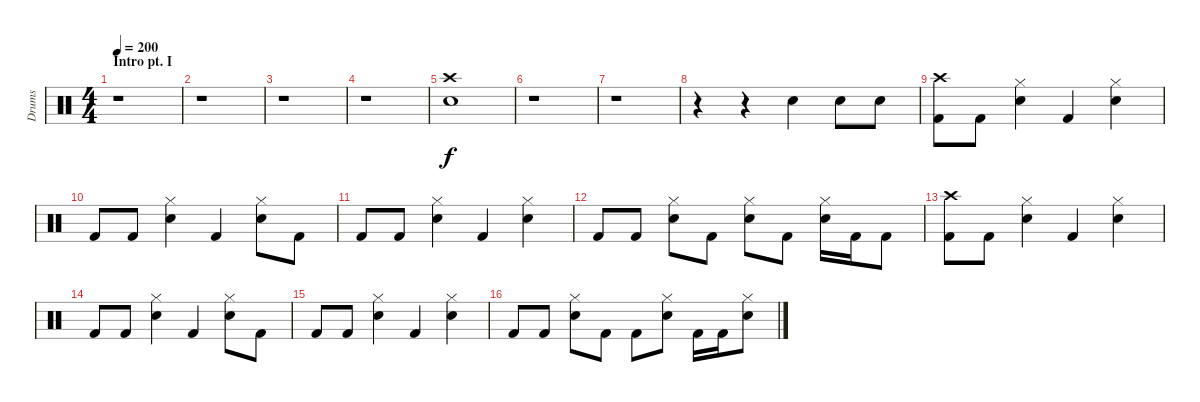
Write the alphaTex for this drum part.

\track ("Drums" "Drums") {instrument percussion}
\staff {score}
\articulation defaults
\ts (4 4)
\section ("" "Intro pt. I")
\tempo 200
\clef neutral
\ks c
r.1{dy f} |
r.1 |
r.1 |
r.1 |
("Crash high (hit)" "Snare (hit) 2").1 |
r.1 |
r.1 |
r.4 r.4 "Snare (hit) 2".4 "Snare (hit) 2".8 "Snare (hit) 2".8 |
("Crash high (hit)" "Kick (hit) 2").8 "Kick (hit) 2".8 ("Hi-Hat (closed)" "Snare (hit) 2").4 "Kick (hit) 2".4 ("Hi-Hat (closed)" "Snare (hit) 2").4 |
"Kick (hit) 2".8 "Kick (hit) 2".8 ("Hi-Hat (closed)" "Snare (hit) 2").4 "Kick (hit) 2".4 ("Hi-Hat (closed)" "Snare (hit) 2").8 "Kick (hit) 2".8 |
"Kick (hit) 2".8 "Kick (hit) 2".8 ("Hi-Hat (closed)" "Snare (hit) 2").4 "Kick (hit) 2".4 ("Hi-Hat (closed)" "Snare (hit) 2").4 |
"Kick (hit) 2".8 "Kick (hit) 2".8 ("Hi-Hat (closed)" "Snare (hit) 2").8 "Kick (hit) 2".8 ("Hi-Hat (closed)" "Snare (hit) 2").8 "Kick (hit) 2".8 ("Hi-Hat (closed)" "Snare (hit) 2").16 "Kick (hit) 2".16 "Kick (hit) 2".8 |
("Crash high (hit)" "Kick (hit) 2").8 "Kick (hit) 2".8 ("Hi-Hat (closed)" "Snare (hit) 2").4 "Kick (hit) 2".4 ("Hi-Hat (closed)" "Snare (hit) 2").4 |
"Kick (hit) 2".8 "Kick (hit) 2".8 ("Hi-Hat (closed)" "Snare (hit) 2").4 "Kick (hit) 2".4 ("Hi-Hat (closed)" "Snare (hit) 2").8 "Kick (hit) 2".8 |
"Kick (hit) 2".8 "Kick (hit) 2".8 ("Hi-Hat (closed)" "Snare (hit) 2").4 "Kick (hit) 2".4 ("Hi-Hat (closed)" "Snare (hit) 2").4 |
"Kick (hit) 2".8 "Kick (hit) 2".8 ("Hi-Hat (closed)" "Snare (hit) 2").8 "Kick (hit) 2".8 "Kick (hit) 2".8 ("Hi-Hat (closed)" "Snare (hit) 2").8 "Kick (hit) 2".16 "Kick (hit) 2".16 ("Hi-Hat (closed)" "Snare (hit) 2").8
